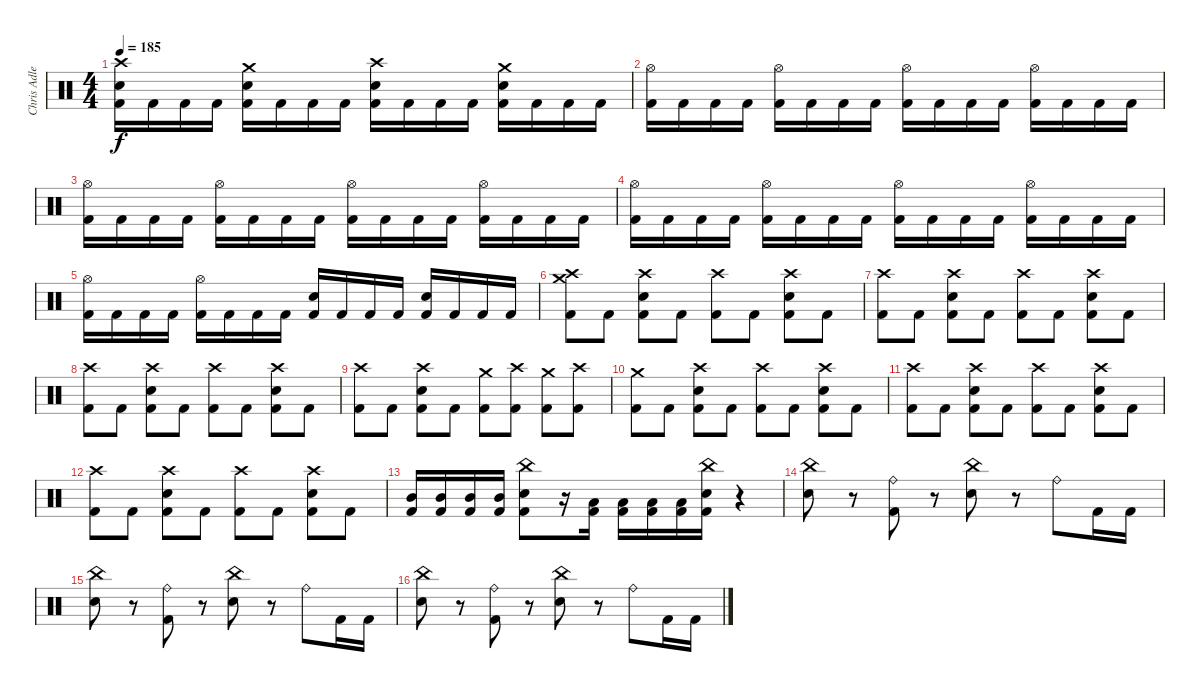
\track ("Chris Adler" "Chris Adle") {instrument percussion}
\staff {score}
\articulation defaults
\ts (4 4)
\tempo 185
\clef neutral
\ks c
("Crash high (hit)" "Electric Snare (hit)" "Kick (hit) 2").16{dy f} "Kick (hit) 2".16 "Kick (hit) 2".16 "Kick (hit) 2".16 ("Crash medium (hit)" "Electric Snare (hit)" "Kick (hit) 2").16 "Kick (hit) 2".16 "Kick (hit) 2".16 "Kick (hit) 2".16 ("Crash high (hit)" "Electric Snare (hit)" "Kick (hit) 2").16 "Kick (hit) 2".16 "Kick (hit) 2".16 "Kick (hit) 2".16 ("Crash medium (hit)" "Electric Snare (hit)" "Kick (hit) 2").16 "Kick (hit) 2".16 "Kick (hit) 2".16 "Kick (hit) 2".16 |
("Hi-Hat (open)" "Kick (hit) 2").16 "Kick (hit) 2".16 "Kick (hit) 2".16 "Kick (hit) 2".16 ("Hi-Hat (open)" "Kick (hit) 2").16 "Kick (hit) 2".16 "Kick (hit) 2".16 "Kick (hit) 2".16 ("Hi-Hat (open)" "Kick (hit) 2").16 "Kick (hit) 2".16 "Kick (hit) 2".16 "Kick (hit) 2".16 ("Hi-Hat (open)" "Kick (hit) 2").16 "Kick (hit) 2".16 "Kick (hit) 2".16 "Kick (hit) 2".16 |
("Hi-Hat (open)" "Kick (hit) 2").16 "Kick (hit) 2".16 "Kick (hit) 2".16 "Kick (hit) 2".16 ("Hi-Hat (open)" "Kick (hit) 2").16 "Kick (hit) 2".16 "Kick (hit) 2".16 "Kick (hit) 2".16 ("Hi-Hat (open)" "Kick (hit) 2").16 "Kick (hit) 2".16 "Kick (hit) 2".16 "Kick (hit) 2".16 ("Hi-Hat (open)" "Kick (hit) 2").16 "Kick (hit) 2".16 "Kick (hit) 2".16 "Kick (hit) 2".16 |
("Hi-Hat (open)" "Kick (hit) 2").16 "Kick (hit) 2".16 "Kick (hit) 2".16 "Kick (hit) 2".16 ("Hi-Hat (open)" "Kick (hit) 2").16 "Kick (hit) 2".16 "Kick (hit) 2".16 "Kick (hit) 2".16 ("Hi-Hat (open)" "Kick (hit) 2").16 "Kick (hit) 2".16 "Kick (hit) 2".16 "Kick (hit) 2".16 ("Hi-Hat (open)" "Kick (hit) 2").16 "Kick (hit) 2".16 "Kick (hit) 2".16 "Kick (hit) 2".16 |
("Hi-Hat (open)" "Kick (hit) 2").16 "Kick (hit) 2".16 "Kick (hit) 2".16 "Kick (hit) 2".16 ("Hi-Hat (open)" "Kick (hit) 2").16 "Kick (hit) 2".16 "Kick (hit) 2".16 "Kick (hit) 2".16 ("Electric Snare (hit)" "Kick (hit) 2").16 "Kick (hit) 2".16 "Kick (hit) 2".16 "Kick (hit) 2".16 ("Electric Snare (hit)" "Kick (hit) 2").16 "Kick (hit) 2".16 "Kick (hit) 2".16 "Kick (hit) 2".16 |
("Crash high (hit)" "Crash medium (hit)" "Kick (hit) 2").8 "Kick (hit) 2".8 ("Crash high (hit)" "Electric Snare (hit)" "Kick (hit) 2").8 "Kick (hit) 2".8 ("Crash high (hit)" "Kick (hit) 2").8 "Kick (hit) 2".8 ("Crash high (hit)" "Electric Snare (hit)" "Kick (hit) 2").8 "Kick (hit) 2".8 |
("Crash high (hit)" "Kick (hit) 2").8 "Kick (hit) 2".8 ("Crash high (hit)" "Electric Snare (hit)" "Kick (hit) 2").8 "Kick (hit) 2".8 ("Crash high (hit)" "Kick (hit) 2").8 "Kick (hit) 2".8 ("Crash high (hit)" "Electric Snare (hit)" "Kick (hit) 2").8 "Kick (hit) 2".8 |
("Crash high (hit)" "Kick (hit) 2").8 "Kick (hit) 2".8 ("Crash high (hit)" "Electric Snare (hit)" "Kick (hit) 2").8 "Kick (hit) 2".8 ("Crash high (hit)" "Kick (hit) 2").8 "Kick (hit) 2".8 ("Crash high (hit)" "Electric Snare (hit)" "Kick (hit) 2").8 "Kick (hit) 2".8 |
("Crash high (hit)" "Kick (hit) 2").8 "Kick (hit) 2".8 ("Crash high (hit)" "Electric Snare (hit)" "Kick (hit) 2").8 "Kick (hit) 2".8 ("Crash medium (hit)" "Kick (hit) 2").8 ("Crash high (hit)" "Kick (hit) 2").8 ("Crash medium (hit)" "Kick (hit) 2").8 ("Crash high (hit)" "Kick (hit) 2").8 |
("Crash medium (hit)" "Kick (hit) 2").8 "Kick (hit) 2".8 ("Crash high (hit)" "Electric Snare (hit)" "Kick (hit) 2").8 "Kick (hit) 2".8 ("Crash high (hit)" "Kick (hit) 2").8 "Kick (hit) 2".8 ("Crash high (hit)" "Electric Snare (hit)" "Kick (hit) 2").8 "Kick (hit) 2".8 |
("Crash high (hit)" "Kick (hit) 2").8 "Kick (hit) 2".8 ("Crash high (hit)" "Electric Snare (hit)" "Kick (hit) 2").8 "Kick (hit) 2".8 ("Crash high (hit)" "Kick (hit) 2").8 "Kick (hit) 2".8 ("Crash high (hit)" "Electric Snare (hit)" "Kick (hit) 2").8 "Kick (hit) 2".8 |
("Crash high (hit)" "Kick (hit) 2").8 "Kick (hit) 2".8 ("Crash high (hit)" "Electric Snare (hit)" "Kick (hit) 2").8 "Kick (hit) 2".8 ("Crash high (hit)" "Kick (hit) 2").8 "Kick (hit) 2".8 ("Crash high (hit)" "Electric Snare (hit)" "Kick (hit) 2").8 "Kick (hit) 2".8 |
("Mid Tom (hit)" "Kick (hit) 2").16 ("Mid Tom (hit)" "Kick (hit) 2").16 ("Mid Tom (hit)" "Kick (hit) 2").16 ("Mid Tom (hit)" "Kick (hit) 2").16 ("China (hit)" "Electric Snare (hit)" "Kick (hit) 2").8 r.16 ("Low Tom (hit)" "Kick (hit) 2").16 ("Low Tom (hit)" "Kick (hit) 2").16 ("Low Tom (hit)" "Kick (hit) 2").16 ("Low Tom (hit)" "Kick (hit) 2").16 ("China (hit)" "Electric Snare (hit)" "Kick (hit) 2").16 r.4 |
("China (hit)" "Electric Snare (hit)").8 r.8 ("Ride (bell)" "Kick (hit) 2").8 r.8 ("China (hit)" "Electric Snare (hit)").8 r.8 "Ride (bell)".8 "Kick (hit) 2".16 "Kick (hit) 2".16 |
("China (hit)" "Electric Snare (hit)").8 r.8 ("Ride (bell)" "Kick (hit) 2").8 r.8 ("China (hit)" "Electric Snare (hit)").8 r.8 "Ride (bell)".8 "Kick (hit) 2".16 "Kick (hit) 2".16 |
("China (hit)" "Electric Snare (hit)").8 r.8 ("Ride (bell)" "Kick (hit) 2").8 r.8 ("China (hit)" "Electric Snare (hit)").8 r.8 "Ride (bell)".8 "Kick (hit) 2".16 "Kick (hit) 2".16
